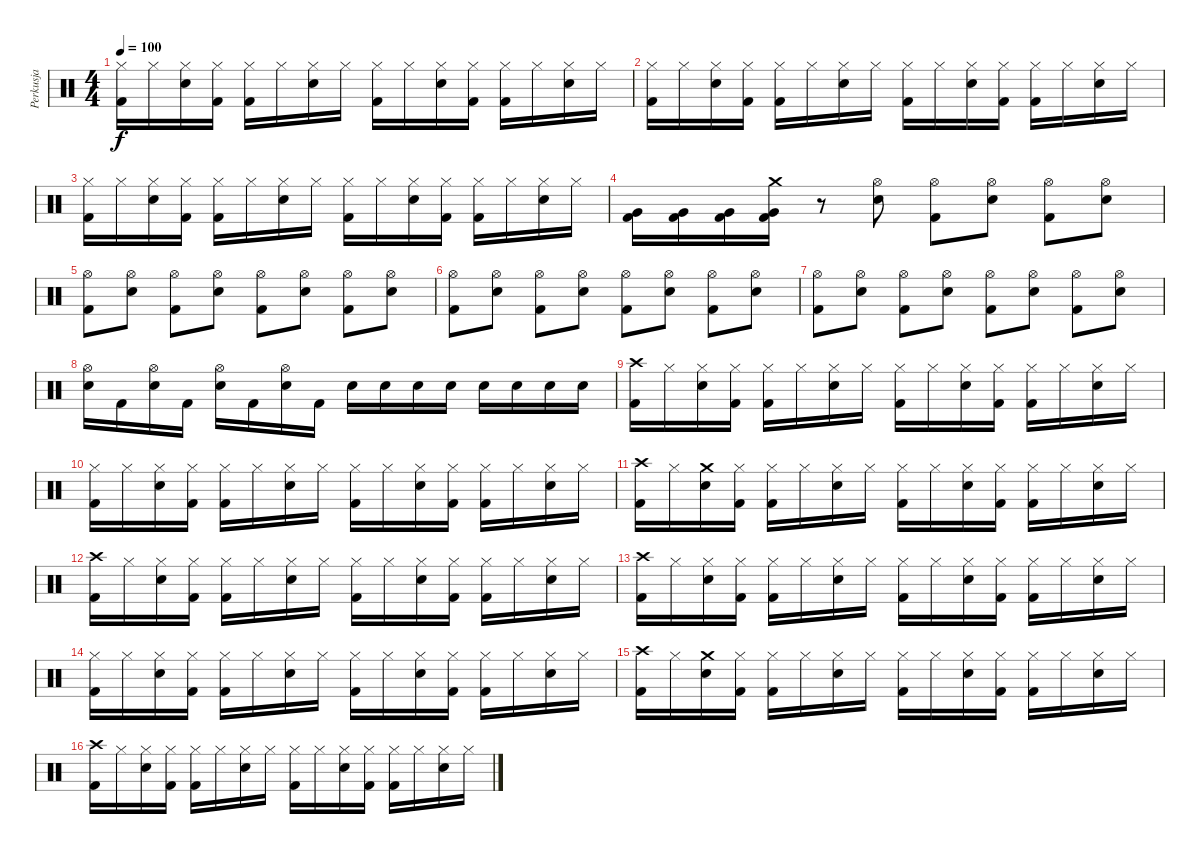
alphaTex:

\track ("Perkusja" "Perkusja") {instrument percussion}
\staff {score}
\articulation defaults
\ts (4 4)
\tempo 100
\clef neutral
\ks c
("Hi-Hat (closed)" "Kick (hit) 2").16{dy f} "Hi-Hat (closed)".16 ("Hi-Hat (closed)" "Electric Snare (hit)").16 ("Hi-Hat (closed)" "Kick (hit) 2").16 ("Hi-Hat (closed)" "Kick (hit) 2").16 "Hi-Hat (closed)".16 ("Hi-Hat (closed)" "Electric Snare (hit)").16 "Hi-Hat (closed)".16 ("Hi-Hat (closed)" "Kick (hit) 2").16 "Hi-Hat (closed)".16 ("Hi-Hat (closed)" "Electric Snare (hit)").16 ("Hi-Hat (closed)" "Kick (hit) 2").16 ("Hi-Hat (closed)" "Kick (hit) 2").16 "Hi-Hat (closed)".16 ("Hi-Hat (closed)" "Electric Snare (hit)").16 "Hi-Hat (closed)".16 |
("Hi-Hat (closed)" "Kick (hit) 2").16 "Hi-Hat (closed)".16 ("Hi-Hat (closed)" "Electric Snare (hit)").16 ("Hi-Hat (closed)" "Kick (hit) 2").16 ("Hi-Hat (closed)" "Kick (hit) 2").16 "Hi-Hat (closed)".16 ("Hi-Hat (closed)" "Electric Snare (hit)").16 "Hi-Hat (closed)".16 ("Hi-Hat (closed)" "Kick (hit) 2").16 "Hi-Hat (closed)".16 ("Hi-Hat (closed)" "Electric Snare (hit)").16 ("Hi-Hat (closed)" "Kick (hit) 2").16 ("Hi-Hat (closed)" "Kick (hit) 2").16 "Hi-Hat (closed)".16 ("Hi-Hat (closed)" "Electric Snare (hit)").16 "Hi-Hat (closed)".16 |
("Hi-Hat (closed)" "Kick (hit) 2").16 "Hi-Hat (closed)".16 ("Hi-Hat (closed)" "Electric Snare (hit)").16 ("Hi-Hat (closed)" "Kick (hit) 2").16 ("Hi-Hat (closed)" "Kick (hit) 2").16 "Hi-Hat (closed)".16 ("Hi-Hat (closed)" "Electric Snare (hit)").16 "Hi-Hat (closed)".16 ("Hi-Hat (closed)" "Kick (hit) 2").16 "Hi-Hat (closed)".16 ("Hi-Hat (closed)" "Electric Snare (hit)").16 ("Hi-Hat (closed)" "Kick (hit) 2").16 ("Hi-Hat (closed)" "Kick (hit) 2").16 "Hi-Hat (closed)".16 ("Hi-Hat (closed)" "Electric Snare (hit)").16 "Hi-Hat (closed)".16 |
("Kick (hit) 2" "Very Low Tom (hit)").16 ("Kick (hit) 2" "Very Low Tom (hit)").16 ("Kick (hit) 2" "Very Low Tom (hit)").16 ("Crash medium (hit)" "Kick (hit) 2" "Very Low Tom (hit)").16 r.8 ("Hi-Hat (open)" "Electric Snare (hit)").8 ("Hi-Hat (open)" "Kick (hit) 2").8 ("Hi-Hat (open)" "Electric Snare (hit)").8 ("Hi-Hat (open)" "Kick (hit) 2").8 ("Hi-Hat (open)" "Electric Snare (hit)").8 |
("Hi-Hat (open)" "Kick (hit) 2").8 ("Hi-Hat (open)" "Electric Snare (hit)").8 ("Hi-Hat (open)" "Kick (hit) 2").8 ("Hi-Hat (open)" "Electric Snare (hit)").8 ("Hi-Hat (open)" "Kick (hit) 2").8 ("Hi-Hat (open)" "Electric Snare (hit)").8 ("Hi-Hat (open)" "Kick (hit) 2").8 ("Hi-Hat (open)" "Electric Snare (hit)").8 |
("Hi-Hat (open)" "Kick (hit) 2").8 ("Hi-Hat (open)" "Electric Snare (hit)").8 ("Hi-Hat (open)" "Kick (hit) 2").8 ("Hi-Hat (open)" "Electric Snare (hit)").8 ("Hi-Hat (open)" "Kick (hit) 2").8 ("Hi-Hat (open)" "Electric Snare (hit)").8 ("Hi-Hat (open)" "Kick (hit) 2").8 ("Hi-Hat (open)" "Electric Snare (hit)").8 |
("Hi-Hat (open)" "Kick (hit) 2").8 ("Hi-Hat (open)" "Electric Snare (hit)").8 ("Hi-Hat (open)" "Kick (hit) 2").8 ("Hi-Hat (open)" "Electric Snare (hit)").8 ("Hi-Hat (open)" "Kick (hit) 2").8 ("Hi-Hat (open)" "Electric Snare (hit)").8 ("Hi-Hat (open)" "Kick (hit) 2").8 ("Hi-Hat (open)" "Electric Snare (hit)").8 |
("Hi-Hat (open)" "Electric Snare (hit)").16 "Kick (hit) 2".16 ("Hi-Hat (open)" "Electric Snare (hit)").16 "Kick (hit) 2".16 ("Hi-Hat (open)" "Electric Snare (hit)").16 "Kick (hit) 2".16 ("Hi-Hat (open)" "Electric Snare (hit)").16 "Kick (hit) 2".16 "Electric Snare (hit)".16 "Electric Snare (hit)".16 "Electric Snare (hit)".16 "Electric Snare (hit)".16 "Electric Snare (hit)".16 "Electric Snare (hit)".16 "Electric Snare (hit)".16 "Electric Snare (hit)".16 |
("Crash high (hit)" "Kick (hit) 2").16 "Hi-Hat (closed)".16 ("Hi-Hat (closed)" "Electric Snare (hit)").16 ("Hi-Hat (closed)" "Kick (hit) 2").16 ("Hi-Hat (closed)" "Kick (hit) 2").16 "Hi-Hat (closed)".16 ("Hi-Hat (closed)" "Electric Snare (hit)").16 "Hi-Hat (closed)".16 ("Hi-Hat (closed)" "Kick (hit) 2").16 "Hi-Hat (closed)".16 ("Hi-Hat (closed)" "Electric Snare (hit)").16 ("Hi-Hat (closed)" "Kick (hit) 2").16 ("Hi-Hat (closed)" "Kick (hit) 2").16 "Hi-Hat (closed)".16 ("Hi-Hat (closed)" "Electric Snare (hit)").16 "Hi-Hat (closed)".16 |
("Hi-Hat (closed)" "Kick (hit) 2").16 "Hi-Hat (closed)".16 ("Hi-Hat (closed)" "Electric Snare (hit)").16 ("Hi-Hat (closed)" "Kick (hit) 2").16 ("Hi-Hat (closed)" "Kick (hit) 2").16 "Hi-Hat (closed)".16 ("Hi-Hat (closed)" "Electric Snare (hit)").16 "Hi-Hat (closed)".16 ("Hi-Hat (closed)" "Kick (hit) 2").16 "Hi-Hat (closed)".16 ("Hi-Hat (closed)" "Electric Snare (hit)").16 ("Hi-Hat (closed)" "Kick (hit) 2").16 ("Hi-Hat (closed)" "Kick (hit) 2").16 "Hi-Hat (closed)".16 ("Hi-Hat (closed)" "Electric Snare (hit)").16 "Hi-Hat (closed)".16 |
("Crash high (hit)" "Kick (hit) 2").16 "Hi-Hat (closed)".16 ("Crash medium (hit)" "Electric Snare (hit)").16 ("Hi-Hat (closed)" "Kick (hit) 2").16 ("Hi-Hat (closed)" "Kick (hit) 2").16 "Hi-Hat (closed)".16 ("Hi-Hat (closed)" "Electric Snare (hit)").16 "Hi-Hat (closed)".16 ("Hi-Hat (closed)" "Kick (hit) 2").16 "Hi-Hat (closed)".16 ("Hi-Hat (closed)" "Electric Snare (hit)").16 ("Hi-Hat (closed)" "Kick (hit) 2").16 ("Hi-Hat (closed)" "Kick (hit) 2").16 "Hi-Hat (closed)".16 ("Hi-Hat (closed)" "Electric Snare (hit)").16 "Hi-Hat (closed)".16 |
("Crash high (hit)" "Kick (hit) 2").16 "Hi-Hat (closed)".16 ("Hi-Hat (closed)" "Electric Snare (hit)").16 ("Hi-Hat (closed)" "Kick (hit) 2").16 ("Hi-Hat (closed)" "Kick (hit) 2").16 "Hi-Hat (closed)".16 ("Hi-Hat (closed)" "Electric Snare (hit)").16 "Hi-Hat (closed)".16 ("Hi-Hat (closed)" "Kick (hit) 2").16 "Hi-Hat (closed)".16 ("Hi-Hat (closed)" "Electric Snare (hit)").16 ("Hi-Hat (closed)" "Kick (hit) 2").16 ("Hi-Hat (closed)" "Kick (hit) 2").16 "Hi-Hat (closed)".16 ("Hi-Hat (closed)" "Electric Snare (hit)").16 "Hi-Hat (closed)".16 |
("Crash high (hit)" "Kick (hit) 2").16 "Hi-Hat (closed)".16 ("Hi-Hat (closed)" "Electric Snare (hit)").16 ("Hi-Hat (closed)" "Kick (hit) 2").16 ("Hi-Hat (closed)" "Kick (hit) 2").16 "Hi-Hat (closed)".16 ("Hi-Hat (closed)" "Electric Snare (hit)").16 "Hi-Hat (closed)".16 ("Hi-Hat (closed)" "Kick (hit) 2").16 "Hi-Hat (closed)".16 ("Hi-Hat (closed)" "Electric Snare (hit)").16 ("Hi-Hat (closed)" "Kick (hit) 2").16 ("Hi-Hat (closed)" "Kick (hit) 2").16 "Hi-Hat (closed)".16 ("Hi-Hat (closed)" "Electric Snare (hit)").16 "Hi-Hat (closed)".16 |
("Hi-Hat (closed)" "Kick (hit) 2").16 "Hi-Hat (closed)".16 ("Hi-Hat (closed)" "Electric Snare (hit)").16 ("Hi-Hat (closed)" "Kick (hit) 2").16 ("Hi-Hat (closed)" "Kick (hit) 2").16 "Hi-Hat (closed)".16 ("Hi-Hat (closed)" "Electric Snare (hit)").16 "Hi-Hat (closed)".16 ("Hi-Hat (closed)" "Kick (hit) 2").16 "Hi-Hat (closed)".16 ("Hi-Hat (closed)" "Electric Snare (hit)").16 ("Hi-Hat (closed)" "Kick (hit) 2").16 ("Hi-Hat (closed)" "Kick (hit) 2").16 "Hi-Hat (closed)".16 ("Hi-Hat (closed)" "Electric Snare (hit)").16 "Hi-Hat (closed)".16 |
("Crash high (hit)" "Kick (hit) 2").16 "Hi-Hat (closed)".16 ("Crash medium (hit)" "Electric Snare (hit)").16 ("Hi-Hat (closed)" "Kick (hit) 2").16 ("Hi-Hat (closed)" "Kick (hit) 2").16 "Hi-Hat (closed)".16 ("Hi-Hat (closed)" "Electric Snare (hit)").16 "Hi-Hat (closed)".16 ("Hi-Hat (closed)" "Kick (hit) 2").16 "Hi-Hat (closed)".16 ("Hi-Hat (closed)" "Electric Snare (hit)").16 ("Hi-Hat (closed)" "Kick (hit) 2").16 ("Hi-Hat (closed)" "Kick (hit) 2").16 "Hi-Hat (closed)".16 ("Hi-Hat (closed)" "Electric Snare (hit)").16 "Hi-Hat (closed)".16 |
("Crash high (hit)" "Kick (hit) 2").16 "Hi-Hat (closed)".16 ("Hi-Hat (closed)" "Electric Snare (hit)").16 ("Hi-Hat (closed)" "Kick (hit) 2").16 ("Hi-Hat (closed)" "Kick (hit) 2").16 "Hi-Hat (closed)".16 ("Hi-Hat (closed)" "Electric Snare (hit)").16 "Hi-Hat (closed)".16 ("Hi-Hat (closed)" "Kick (hit) 2").16 "Hi-Hat (closed)".16 ("Hi-Hat (closed)" "Electric Snare (hit)").16 ("Hi-Hat (closed)" "Kick (hit) 2").16 ("Hi-Hat (closed)" "Kick (hit) 2").16 "Hi-Hat (closed)".16 ("Hi-Hat (closed)" "Electric Snare (hit)").16 "Hi-Hat (closed)".16
